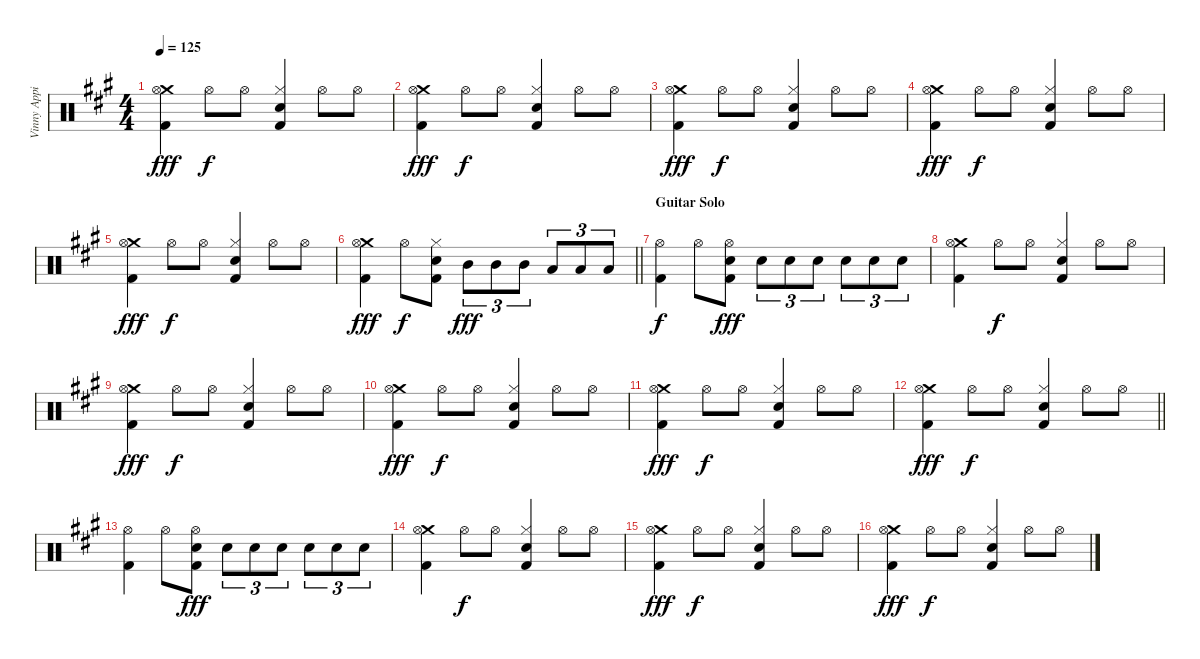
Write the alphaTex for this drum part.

\track ("Vinny Appice" "Vinny Appi") {instrument percussion}
\staff {score}
\articulation defaults
\ts (4 4)
\tempo 125
\clef neutral
\ks a
("Crash medium (hit)" "Hi-Hat (open)" "Kick (hit) 2").4{dy fff} "Hi-Hat (open)".8{dy f} "Hi-Hat (open)".8 ("Hi-Hat (closed)" "Snare (hit) 2" "Kick (hit) 2").4 "Hi-Hat (open)".8 "Hi-Hat (open)".8 |
("Crash medium (hit)" "Hi-Hat (open)" "Kick (hit) 2").4{dy fff} "Hi-Hat (open)".8{dy f} "Hi-Hat (open)".8 ("Hi-Hat (closed)" "Snare (hit) 2" "Kick (hit) 2").4 "Hi-Hat (open)".8 "Hi-Hat (open)".8 |
("Crash medium (hit)" "Hi-Hat (open)" "Kick (hit) 2").4{dy fff} "Hi-Hat (open)".8{dy f} "Hi-Hat (open)".8 ("Hi-Hat (closed)" "Snare (hit) 2" "Kick (hit) 2").4 "Hi-Hat (open)".8 "Hi-Hat (open)".8 |
("Crash medium (hit)" "Hi-Hat (open)" "Kick (hit) 2").4{dy fff} "Hi-Hat (open)".8{dy f} "Hi-Hat (open)".8 ("Hi-Hat (closed)" "Snare (hit) 2" "Kick (hit) 2").4 "Hi-Hat (open)".8 "Hi-Hat (open)".8 |
("Crash medium (hit)" "Hi-Hat (open)" "Kick (hit) 2").4{dy fff} "Hi-Hat (open)".8{dy f} "Hi-Hat (open)".8 ("Hi-Hat (closed)" "Snare (hit) 2" "Kick (hit) 2").4 "Hi-Hat (open)".8 "Hi-Hat (open)".8 |
\barLineRight lightlight
("Crash medium (hit)" "Hi-Hat (open)" "Kick (hit) 2").4{dy fff} "Hi-Hat (open)".8{dy f} ("Hi-Hat (closed)" "Snare (hit) 2" "Kick (hit) 2").8 "Mid Tom (hit)".8{tu (3 2) dy fff} "Mid Tom (hit)".8{tu (3 2)} "Mid Tom (hit)".8{tu (3 2)} "Low Tom (hit)".8{tu (3 2)} "Low Tom (hit)".8{tu (3 2)} "Low Tom (hit)".8{tu (3 2)} |
\section ("" "Guitar Solo")
("Hi-Hat (open)" "Kick (hit) 2").4{dy f} "Hi-Hat (open)".8 ("Hi-Hat (open)" "Snare (hit) 2" "Kick (hit) 2").8{dy fff} "Snare (hit) 2".8{tu (3 2)} "Snare (hit) 2".8{tu (3 2)} "Snare (hit) 2".8{tu (3 2)} "Snare (hit) 2".8{tu (3 2)} "Snare (hit) 2".8{tu (3 2)} "Snare (hit) 2".8{tu (3 2)} |
("Crash medium (hit)" "Hi-Hat (open)" "Kick (hit) 2").4 "Hi-Hat (open)".8{dy f} "Hi-Hat (open)".8 ("Hi-Hat (closed)" "Snare (hit) 2" "Kick (hit) 2").4 "Hi-Hat (open)".8 "Hi-Hat (open)".8 |
("Crash medium (hit)" "Hi-Hat (open)" "Kick (hit) 2").4{dy fff} "Hi-Hat (open)".8{dy f} "Hi-Hat (open)".8 ("Hi-Hat (closed)" "Snare (hit) 2" "Kick (hit) 2").4 "Hi-Hat (open)".8 "Hi-Hat (open)".8 |
("Crash medium (hit)" "Hi-Hat (open)" "Kick (hit) 2").4{dy fff} "Hi-Hat (open)".8{dy f} "Hi-Hat (open)".8 ("Hi-Hat (closed)" "Snare (hit) 2" "Kick (hit) 2").4 "Hi-Hat (open)".8 "Hi-Hat (open)".8 |
("Crash medium (hit)" "Hi-Hat (open)" "Kick (hit) 2").4{dy fff} "Hi-Hat (open)".8{dy f} "Hi-Hat (open)".8 ("Hi-Hat (closed)" "Snare (hit) 2" "Kick (hit) 2").4 "Hi-Hat (open)".8 "Hi-Hat (open)".8 |
\barLineRight lightlight
("Crash medium (hit)" "Hi-Hat (open)" "Kick (hit) 2").4{dy fff} "Hi-Hat (open)".8{dy f} "Hi-Hat (open)".8 ("Hi-Hat (closed)" "Snare (hit) 2" "Kick (hit) 2").4 "Hi-Hat (open)".8 "Hi-Hat (open)".8 |
("Hi-Hat (open)" "Kick (hit) 2").4 "Hi-Hat (open)".8 ("Hi-Hat (open)" "Snare (hit) 2" "Kick (hit) 2").8{dy fff} "Snare (hit) 2".8{tu (3 2)} "Snare (hit) 2".8{tu (3 2)} "Snare (hit) 2".8{tu (3 2)} "Snare (hit) 2".8{tu (3 2)} "Snare (hit) 2".8{tu (3 2)} "Snare (hit) 2".8{tu (3 2)} |
("Crash medium (hit)" "Hi-Hat (open)" "Kick (hit) 2").4 "Hi-Hat (open)".8{dy f} "Hi-Hat (open)".8 ("Hi-Hat (closed)" "Snare (hit) 2" "Kick (hit) 2").4 "Hi-Hat (open)".8 "Hi-Hat (open)".8 |
("Crash medium (hit)" "Hi-Hat (open)" "Kick (hit) 2").4{dy fff} "Hi-Hat (open)".8{dy f} "Hi-Hat (open)".8 ("Hi-Hat (closed)" "Snare (hit) 2" "Kick (hit) 2").4 "Hi-Hat (open)".8 "Hi-Hat (open)".8 |
("Crash medium (hit)" "Hi-Hat (open)" "Kick (hit) 2").4{dy fff} "Hi-Hat (open)".8{dy f} "Hi-Hat (open)".8 ("Hi-Hat (closed)" "Snare (hit) 2" "Kick (hit) 2").4 "Hi-Hat (open)".8 "Hi-Hat (open)".8
